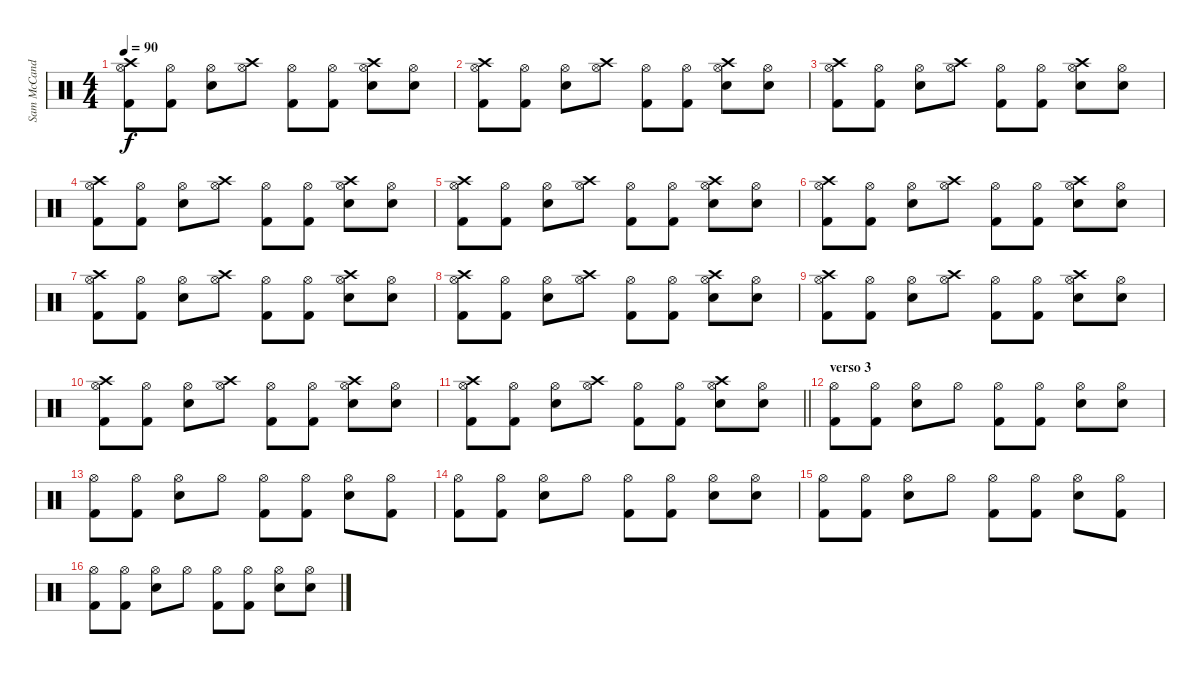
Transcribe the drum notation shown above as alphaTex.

\track ("Sam McCandless" "Sam McCand") {instrument percussion}
\staff {score}
\articulation defaults
\ts (4 4)
\tempo 90
\clef neutral
\ks c
("Crash high (hit)" "Hi-Hat (open)" "Kick (hit) 2").8{dy f} ("Hi-Hat (open)" "Kick (hit) 2").8 ("Hi-Hat (open)" "Electric Snare (hit)").8 ("Crash high (hit)" "Hi-Hat (open)").8 ("Hi-Hat (open)" "Kick (hit) 2").8 ("Hi-Hat (open)" "Kick (hit) 2").8 ("Crash high (hit)" "Hi-Hat (open)" "Electric Snare (hit)").8 ("Hi-Hat (open)" "Electric Snare (hit)").8 |
("Crash high (hit)" "Hi-Hat (open)" "Kick (hit) 2").8 ("Hi-Hat (open)" "Kick (hit) 2").8 ("Hi-Hat (open)" "Electric Snare (hit)").8 ("Crash high (hit)" "Hi-Hat (open)").8 ("Hi-Hat (open)" "Kick (hit) 2").8 ("Hi-Hat (open)" "Kick (hit) 2").8 ("Crash high (hit)" "Hi-Hat (open)" "Electric Snare (hit)").8 ("Hi-Hat (open)" "Electric Snare (hit)").8 |
("Crash high (hit)" "Hi-Hat (open)" "Kick (hit) 2").8 ("Hi-Hat (open)" "Kick (hit) 2").8 ("Hi-Hat (open)" "Electric Snare (hit)").8 ("Crash high (hit)" "Hi-Hat (open)").8 ("Hi-Hat (open)" "Kick (hit) 2").8 ("Hi-Hat (open)" "Kick (hit) 2").8 ("Crash high (hit)" "Hi-Hat (open)" "Electric Snare (hit)").8 ("Hi-Hat (open)" "Electric Snare (hit)").8 |
("Crash high (hit)" "Hi-Hat (open)" "Kick (hit) 2").8 ("Hi-Hat (open)" "Kick (hit) 2").8 ("Hi-Hat (open)" "Electric Snare (hit)").8 ("Crash high (hit)" "Hi-Hat (open)").8 ("Hi-Hat (open)" "Kick (hit) 2").8 ("Hi-Hat (open)" "Kick (hit) 2").8 ("Crash high (hit)" "Hi-Hat (open)" "Electric Snare (hit)").8 ("Hi-Hat (open)" "Electric Snare (hit)").8 |
("Crash high (hit)" "Hi-Hat (open)" "Kick (hit) 2").8 ("Hi-Hat (open)" "Kick (hit) 2").8 ("Hi-Hat (open)" "Electric Snare (hit)").8 ("Crash high (hit)" "Hi-Hat (open)").8 ("Hi-Hat (open)" "Kick (hit) 2").8 ("Hi-Hat (open)" "Kick (hit) 2").8 ("Crash high (hit)" "Hi-Hat (open)" "Electric Snare (hit)").8 ("Hi-Hat (open)" "Electric Snare (hit)").8 |
("Crash high (hit)" "Hi-Hat (open)" "Kick (hit) 2").8 ("Hi-Hat (open)" "Kick (hit) 2").8 ("Hi-Hat (open)" "Electric Snare (hit)").8 ("Crash high (hit)" "Hi-Hat (open)").8 ("Hi-Hat (open)" "Kick (hit) 2").8 ("Hi-Hat (open)" "Kick (hit) 2").8 ("Crash high (hit)" "Hi-Hat (open)" "Electric Snare (hit)").8 ("Hi-Hat (open)" "Electric Snare (hit)").8 |
("Crash high (hit)" "Hi-Hat (open)" "Kick (hit) 2").8 ("Hi-Hat (open)" "Kick (hit) 2").8 ("Hi-Hat (open)" "Electric Snare (hit)").8 ("Crash high (hit)" "Hi-Hat (open)").8 ("Hi-Hat (open)" "Kick (hit) 2").8 ("Hi-Hat (open)" "Kick (hit) 2").8 ("Crash high (hit)" "Hi-Hat (open)" "Electric Snare (hit)").8 ("Hi-Hat (open)" "Electric Snare (hit)").8 |
("Crash high (hit)" "Hi-Hat (open)" "Kick (hit) 2").8 ("Hi-Hat (open)" "Kick (hit) 2").8 ("Hi-Hat (open)" "Electric Snare (hit)").8 ("Crash high (hit)" "Hi-Hat (open)").8 ("Hi-Hat (open)" "Kick (hit) 2").8 ("Hi-Hat (open)" "Kick (hit) 2").8 ("Crash high (hit)" "Hi-Hat (open)" "Electric Snare (hit)").8 ("Hi-Hat (open)" "Electric Snare (hit)").8 |
("Crash high (hit)" "Hi-Hat (open)" "Kick (hit) 2").8 ("Hi-Hat (open)" "Kick (hit) 2").8 ("Hi-Hat (open)" "Electric Snare (hit)").8 ("Crash high (hit)" "Hi-Hat (open)").8 ("Hi-Hat (open)" "Kick (hit) 2").8 ("Hi-Hat (open)" "Kick (hit) 2").8 ("Crash high (hit)" "Hi-Hat (open)" "Electric Snare (hit)").8 ("Hi-Hat (open)" "Electric Snare (hit)").8 |
("Crash high (hit)" "Hi-Hat (open)" "Kick (hit) 2").8 ("Hi-Hat (open)" "Kick (hit) 2").8 ("Hi-Hat (open)" "Electric Snare (hit)").8 ("Crash high (hit)" "Hi-Hat (open)").8 ("Hi-Hat (open)" "Kick (hit) 2").8 ("Hi-Hat (open)" "Kick (hit) 2").8 ("Crash high (hit)" "Hi-Hat (open)" "Electric Snare (hit)").8 ("Hi-Hat (open)" "Electric Snare (hit)").8 |
\barLineRight lightlight
("Crash high (hit)" "Hi-Hat (open)" "Kick (hit) 2").8 ("Hi-Hat (open)" "Kick (hit) 2").8 ("Hi-Hat (open)" "Electric Snare (hit)").8 ("Crash high (hit)" "Hi-Hat (open)").8 ("Hi-Hat (open)" "Kick (hit) 2").8 ("Hi-Hat (open)" "Kick (hit) 2").8 ("Crash high (hit)" "Hi-Hat (open)" "Electric Snare (hit)").8 ("Hi-Hat (open)" "Electric Snare (hit)").8 |
\section ("" "verso 3")
("Hi-Hat (open)" "Kick (hit) 2").8 ("Hi-Hat (open)" "Kick (hit) 2").8 ("Hi-Hat (open)" "Electric Snare (hit)").8 "Hi-Hat (open)".8 ("Hi-Hat (open)" "Kick (hit) 2").8 ("Hi-Hat (open)" "Kick (hit) 2").8 ("Hi-Hat (open)" "Electric Snare (hit)").8 ("Hi-Hat (open)" "Electric Snare (hit)").8 |
("Hi-Hat (open)" "Kick (hit) 2").8 ("Hi-Hat (open)" "Kick (hit) 2").8 ("Hi-Hat (open)" "Electric Snare (hit)").8 "Hi-Hat (open)".8 ("Hi-Hat (open)" "Kick (hit) 2").8 ("Hi-Hat (open)" "Kick (hit) 2").8 ("Hi-Hat (open)" "Electric Snare (hit)").8 ("Hi-Hat (open)" "Kick (hit) 2").8 |
("Hi-Hat (open)" "Kick (hit) 2").8 ("Hi-Hat (open)" "Kick (hit) 2").8 ("Hi-Hat (open)" "Electric Snare (hit)").8 "Hi-Hat (open)".8 ("Hi-Hat (open)" "Kick (hit) 2").8 ("Hi-Hat (open)" "Kick (hit) 2").8 ("Hi-Hat (open)" "Electric Snare (hit)").8 ("Hi-Hat (open)" "Electric Snare (hit)").8 |
("Hi-Hat (open)" "Kick (hit) 2").8 ("Hi-Hat (open)" "Kick (hit) 2").8 ("Hi-Hat (open)" "Electric Snare (hit)").8 "Hi-Hat (open)".8 ("Hi-Hat (open)" "Kick (hit) 2").8 ("Hi-Hat (open)" "Kick (hit) 2").8 ("Hi-Hat (open)" "Electric Snare (hit)").8 ("Hi-Hat (open)" "Kick (hit) 2").8 |
("Hi-Hat (open)" "Kick (hit) 2").8 ("Hi-Hat (open)" "Kick (hit) 2").8 ("Hi-Hat (open)" "Electric Snare (hit)").8 "Hi-Hat (open)".8 ("Hi-Hat (open)" "Kick (hit) 2").8 ("Hi-Hat (open)" "Kick (hit) 2").8 ("Hi-Hat (open)" "Electric Snare (hit)").8 ("Hi-Hat (open)" "Electric Snare (hit)").8
